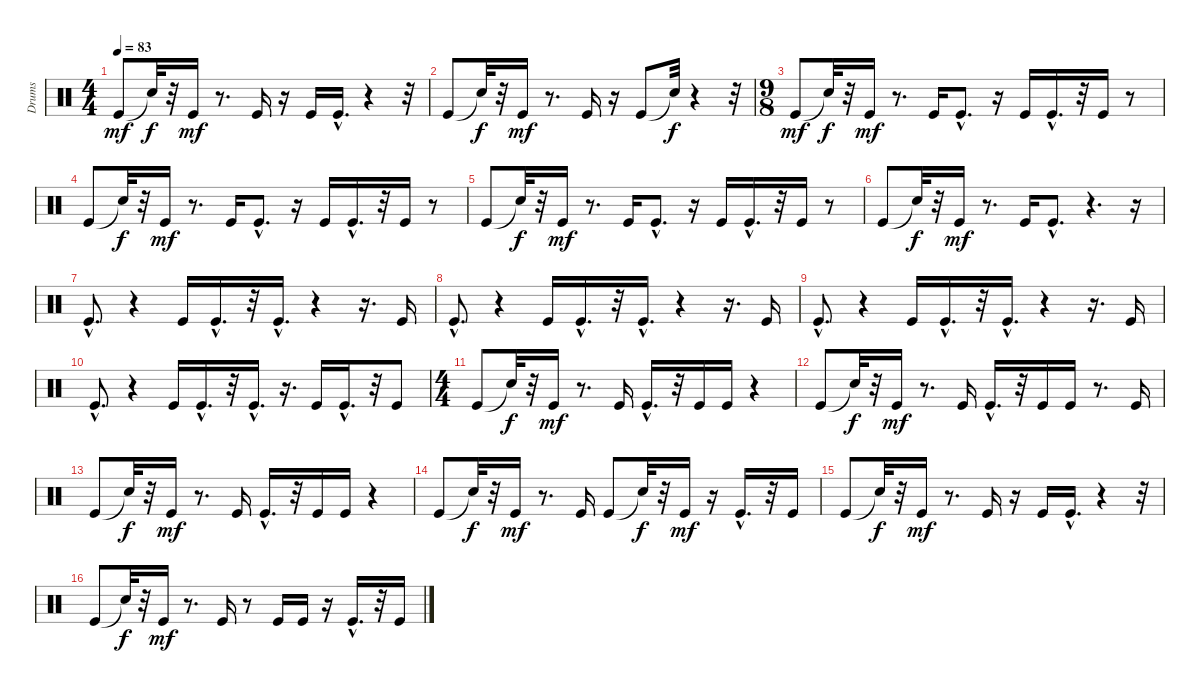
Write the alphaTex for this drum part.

\track ("Drums" "Drums") {instrument percussion}
\staff {score}
\articulation defaults
\ts (4 4)
\tempo 83
\clef neutral
\ks c "Kick (hit)".8{dy mf} "Snare (hit)"{t}.32{dy f}
r.32 "Kick (hit)".16{dy mf} r.8{d} "Kick (hit)".16 r.16 "Kick (hit)".16 "Kick (hit)"{hac}.16{d} r.4 r.32 |
"Kick (hit)".8 "Snare (hit)"{t}.32{dy f} r.32 "Kick (hit)".16{dy mf} r.8{d} "Kick (hit)".16 r.16 "Kick (hit)".8 "Snare (hit)"{t}.32{dy f} r.4 r.32 |
\ts (9 8)
"Kick (hit)".8{dy mf} "Snare (hit)"{t}.32{dy f} r.32 "Kick (hit)".16{dy mf} r.8{d} "Kick (hit)".16 "Kick (hit)"{hac}.8{d} r.16 "Kick (hit)".16 "Kick (hit)"{hac}.16{d} r.32 "Kick (hit)".16 r.8 |
"Kick (hit)".8 "Snare (hit)"{t}.32{dy f} r.32 "Kick (hit)".16{dy mf} r.8{d} "Kick (hit)".16 "Kick (hit)"{hac}.8{d} r.16 "Kick (hit)".16 "Kick (hit)"{hac}.16{d} r.32 "Kick (hit)".16 r.8 |
"Kick (hit)".8 "Snare (hit)"{t}.32{dy f} r.32 "Kick (hit)".16{dy mf} r.8{d} "Kick (hit)".16 "Kick (hit)"{hac}.8{d} r.16 "Kick (hit)".16 "Kick (hit)"{hac}.16{d} r.32 "Kick (hit)".16 r.8 |
"Kick (hit)".8 "Snare (hit)"{t}.32{dy f} r.32 "Kick (hit)".16{dy mf} r.8{d} "Kick (hit)".16 "Kick (hit)"{hac}.8{d} r.4{d} r.16 |
"Kick (hit)"{hac}.8{d} r.4 "Kick (hit)".16 "Kick (hit)"{hac}.16{d} r.32 "Kick (hit)"{hac}.16{d} r.4 r.16{d} "Kick (hit)".16 |
"Kick (hit)"{hac}.8{d} r.4 "Kick (hit)".16 "Kick (hit)"{hac}.16{d} r.32 "Kick (hit)"{hac}.16{d} r.4 r.16{d} "Kick (hit)".16 |
"Kick (hit)"{hac}.8{d} r.4 "Kick (hit)".16 "Kick (hit)"{hac}.16{d} r.32 "Kick (hit)"{hac}.16{d} r.4 r.16{d} "Kick (hit)".16 |
"Kick (hit)"{hac}.8{d} r.4 "Kick (hit)".16 "Kick (hit)"{hac}.16{d} r.32 "Kick (hit)"{hac}.16{d} r.16{d} "Kick (hit)".16 "Kick (hit)"{hac}.16{d} r.32 "Kick (hit)".8 |
\ts (4 4)
"Kick (hit)".8 "Snare (hit)"{t}.32{dy f} r.32 "Kick (hit)".16{dy mf} r.8{d} "Kick (hit)".16 "Kick (hit)"{hac}.16{d} r.32 "Kick (hit)".16 "Kick (hit)".16 r.4 |
"Kick (hit)".8 "Snare (hit)"{t}.32{dy f} r.32 "Kick (hit)".16{dy mf} r.8{d} "Kick (hit)".16 "Kick (hit)"{hac}.16{d} r.32 "Kick (hit)".16 "Kick (hit)".16 r.8{d} "Kick (hit)".16 |
"Kick (hit)".8 "Snare (hit)"{t}.32{dy f} r.32 "Kick (hit)".16{dy mf} r.8{d} "Kick (hit)".16 "Kick (hit)"{hac}.16{d} r.32 "Kick (hit)".16 "Kick (hit)".16 r.4 |
"Kick (hit)".8 "Snare (hit)"{t}.32{dy f} r.32 "Kick (hit)".16{dy mf} r.8{d} "Kick (hit)".16 "Kick (hit)".8 "Snare (hit)"{t}.32{dy f} r.32 "Kick (hit)".16{dy mf} r.16 "Kick (hit)"{hac}.16{d} r.32 "Kick (hit)".16 |
"Kick (hit)".8 "Snare (hit)"{t}.32{dy f} r.32 "Kick (hit)".16{dy mf} r.8{d} "Kick (hit)".16 r.16 "Kick (hit)".16 "Kick (hit)"{hac}.16{d} r.4 r.32 |
"Kick (hit)".8 "Snare (hit)"{t}.32{dy f} r.32 "Kick (hit)".16{dy mf} r.8{d} "Kick (hit)".16 r.8 "Kick (hit)".16 "Kick (hit)".16 r.16 "Kick (hit)"{hac}.16{d} r.32 "Kick (hit)".16
